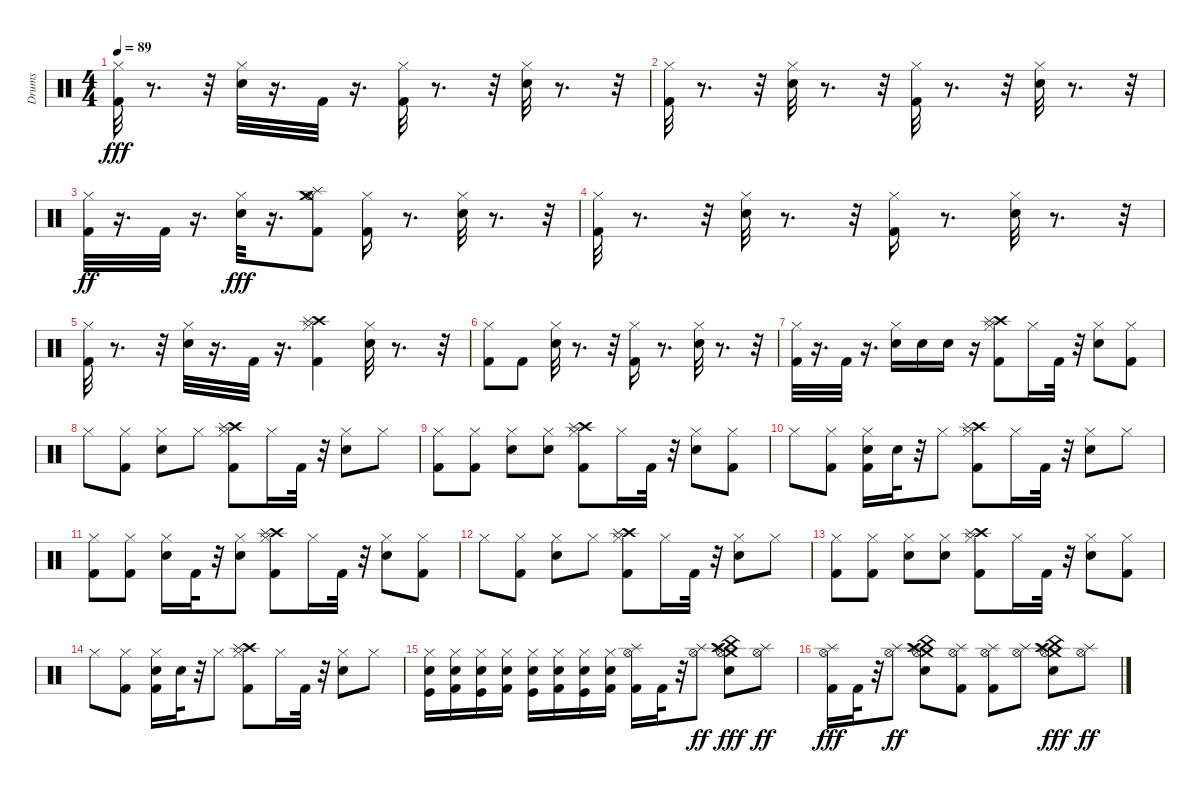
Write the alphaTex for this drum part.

\track ("Drums" "Drums") {instrument percussion}
\staff {score}
\articulation defaults
\ts (4 4)
\tempo 89
\clef neutral
\ks c
("Kick (hit) 2" "Hi-Hat (closed)").32{dy fff} r.8{d} r.32 ("Hi-Hat (closed)" "Snare (hit) 2").32 r.16{d} "Kick (hit) 2".32 r.16{d} ("Kick (hit) 2" "Hi-Hat (closed)").32 r.8{d} r.32 ("Snare (hit) 2" "Hi-Hat (closed)").32 r.8{d} r.32 |
("Kick (hit) 2" "Hi-Hat (closed)").32 r.8{d} r.32 ("Snare (hit) 2" "Hi-Hat (closed)").32 r.8{d} r.32 ("Kick (hit) 2" "Hi-Hat (closed)").32 r.8{d} r.32 ("Snare (hit) 2" "Hi-Hat (closed)").32 r.8{d} r.32 |
("Hi-Hat (closed)" "Kick (hit) 2").32{dy ff} r.16{d} "Kick (hit) 2".32 r.16{d} ("Snare (hit) 2" "Hi-Hat (closed)").32{dy fff} r.16{d} ("Crash medium (hit)" "Splash (hit)" "Kick (hit) 2" "Hi-Hat (open)").8 ("Kick (hit) 2" "Hi-Hat (closed)").16 r.8{d} ("Snare (hit) 2" "Hi-Hat (closed)").32 r.8{d} r.32 |
("Kick (hit) 2" "Hi-Hat (closed)").32 r.8{d} r.32 ("Snare (hit) 2" "Hi-Hat (closed)").32 r.8{d} r.32 ("Kick (hit) 2" "Hi-Hat (closed)").16 r.8{d} ("Snare (hit) 2" "Hi-Hat (closed)").32 r.8{d} r.32 |
("Kick (hit) 2" "Hi-Hat (closed)").32 r.8{d} r.32 ("Hi-Hat (closed)" "Snare (hit) 2").32 r.16{d} "Kick (hit) 2".32 r.16{d} ("Kick (hit) 2" "Crash high (hit)" "Hi-Hat (closed)" "Splash (hit)").4 ("Snare (hit) 2" "Hi-Hat (closed)").32 r.8{d} r.32 |
("Kick (hit) 2" "Hi-Hat (closed)").8 "Kick (hit) 2".8 ("Snare (hit) 2" "Hi-Hat (closed)").32 r.8{d} r.32 ("Kick (hit) 2" "Hi-Hat (closed)").16 r.8{d} ("Snare (hit) 2" "Hi-Hat (closed)").32 r.8{d} r.32 |
("Kick (hit) 2" "Hi-Hat (closed)").32 r.16{d} "Kick (hit) 2".32 r.16{d} ("Snare (hit) 2" "Hi-Hat (closed)").16 "Snare (hit) 2".16 "Snare (hit) 2".16 r.16 ("Crash high (hit)" "Splash (hit)" "Kick (hit) 2" "Hi-Hat (closed)").8 "Hi-Hat (closed)".16 "Kick (hit) 2".32 r.32 ("Snare (hit) 2" "Hi-Hat (closed)").8 ("Kick (hit) 2" "Hi-Hat (closed)").8 |
"Hi-Hat (closed)".8 ("Hi-Hat (closed)" "Kick (hit) 2").8 ("Hi-Hat (closed)" "Snare (hit) 2").8 "Hi-Hat (closed)".8 ("Crash high (hit)" "Splash (hit)" "Kick (hit) 2" "Hi-Hat (closed)").8 "Hi-Hat (closed)".16 "Kick (hit) 2".32 r.32 ("Snare (hit) 2" "Hi-Hat (closed)").8 "Hi-Hat (closed)".8 |
("Kick (hit) 2" "Hi-Hat (closed)").8 ("Kick (hit) 2" "Hi-Hat (closed)").8 ("Snare (hit) 2" "Hi-Hat (closed)").8 ("Snare (hit) 2" "Hi-Hat (closed)").8 ("Crash high (hit)" "Splash (hit)" "Kick (hit) 2" "Hi-Hat (closed)").8 "Hi-Hat (closed)".16 "Kick (hit) 2".32 r.32 ("Snare (hit) 2" "Hi-Hat (closed)").8 ("Kick (hit) 2" "Hi-Hat (closed)").8 |
"Hi-Hat (closed)".8 ("Hi-Hat (closed)" "Kick (hit) 2").8 ("Snare (hit) 2" "Hi-Hat (closed)" "Kick (hit) 2").16 "Snare (hit) 2".32 r.32 "Hi-Hat (closed)".8 ("Crash high (hit)" "Splash (hit)" "Kick (hit) 2" "Hi-Hat (closed)").8 "Hi-Hat (closed)".16 "Kick (hit) 2".32 r.32 ("Snare (hit) 2" "Hi-Hat (closed)").8 "Hi-Hat (closed)".8 |
("Hi-Hat (closed)" "Kick (hit) 2").8 ("Kick (hit) 2" "Hi-Hat (closed)").8 ("Snare (hit) 2" "Hi-Hat (closed)").16 "Kick (hit) 2".32 r.32 ("Snare (hit) 2" "Hi-Hat (closed)").8 ("Crash high (hit)" "Splash (hit)" "Kick (hit) 2" "Hi-Hat (closed)").8 "Hi-Hat (closed)".16 "Kick (hit) 2".32 r.32 ("Snare (hit) 2" "Hi-Hat (closed)").8 ("Kick (hit) 2" "Hi-Hat (closed)").8 |
"Hi-Hat (closed)".8 ("Kick (hit) 2" "Hi-Hat (closed)").8 ("Hi-Hat (closed)" "Snare (hit) 2").8 "Hi-Hat (closed)".8 ("Crash high (hit)" "Splash (hit)" "Kick (hit) 2" "Hi-Hat (closed)").8 "Hi-Hat (closed)".16 "Kick (hit) 2".32 r.32 ("Snare (hit) 2" "Hi-Hat (closed)").8 "Hi-Hat (closed)".8 |
("Kick (hit) 2" "Hi-Hat (closed)").8 ("Kick (hit) 2" "Hi-Hat (closed)").8 ("Snare (hit) 2" "Hi-Hat (closed)").8 ("Snare (hit) 2" "Hi-Hat (closed)").8 ("Crash high (hit)" "Splash (hit)" "Kick (hit) 2" "Hi-Hat (closed)").8 "Hi-Hat (closed)".16 "Kick (hit) 2".32 r.32 ("Snare (hit) 2" "Hi-Hat (closed)").8 ("Kick (hit) 2" "Hi-Hat (closed)").8 |
"Hi-Hat (closed)".8 ("Kick (hit) 2" "Hi-Hat (closed)").8 ("Snare (hit) 2" "Kick (hit) 2" "Hi-Hat (closed)").16 "Snare (hit) 2".32 r.32 "Hi-Hat (closed)".8 ("Crash high (hit)" "Splash (hit)" "Kick (hit) 2" "Hi-Hat (closed)").8 "Hi-Hat (closed)".16 "Kick (hit) 2".32 r.32 ("Snare (hit) 2" "Hi-Hat (closed)").8 "Hi-Hat (closed)".8 |
("Kick (hit)" "Snare (hit) 2" "Hi-Hat (closed)").16 ("Kick (hit) 2" "Snare (hit) 2" "Hi-Hat (closed)").16 ("Kick (hit)" "Snare (hit) 2" "Hi-Hat (closed)").16 ("Kick (hit) 2" "Snare (hit) 2" "Hi-Hat (closed)").16 ("Kick (hit)" "Snare (hit) 2" "Hi-Hat (closed)").16 ("Kick (hit) 2" "Snare (hit) 2" "Hi-Hat (closed)").16 ("Kick (hit)" "Snare (hit) 2" "Hi-Hat (closed)").16 ("Kick (hit) 2" "Snare (hit) 2" "Hi-Hat (closed)").16 ("Hi-Hat (open)" "Splash (hit)" "Kick (hit) 2").16{volume 14} "Kick (hit) 2".32 r.32 ("Hi-Hat (open)" "Splash (hit)").8{dy ff} ("China (hit)" "Crash high (hit)" "Crash medium (hit)" "Hi-Hat (open)" "Splash (hit)" "Snare (hit) 2").8{dy fff} ("Hi-Hat (open)" "Splash (hit)").8{dy ff} |
("Hi-Hat (open)" "Splash (hit)" "Kick (hit) 2").16{dy fff} "Kick (hit) 2".32 r.32 ("Hi-Hat (open)" "Splash (hit)").8{dy ff} ("China (hit)" "Crash medium (hit)" "Crash high (hit)" "Hi-Hat (open)" "Snare (hit) 2" "Splash (hit)").8 ("Kick (hit) 2" "Hi-Hat (open)" "Splash (hit)").8 ("Kick (hit) 2" "Hi-Hat (open)" "Splash (hit)").8 ("Hi-Hat (open)" "Splash (hit)").8 ("Splash (hit)" "Crash medium (hit)" "China (hit)" "Crash high (hit)" "Hi-Hat (open)" "Snare (hit) 2").8{dy fff} ("Hi-Hat (open)" "Splash (hit)").8{dy ff}
